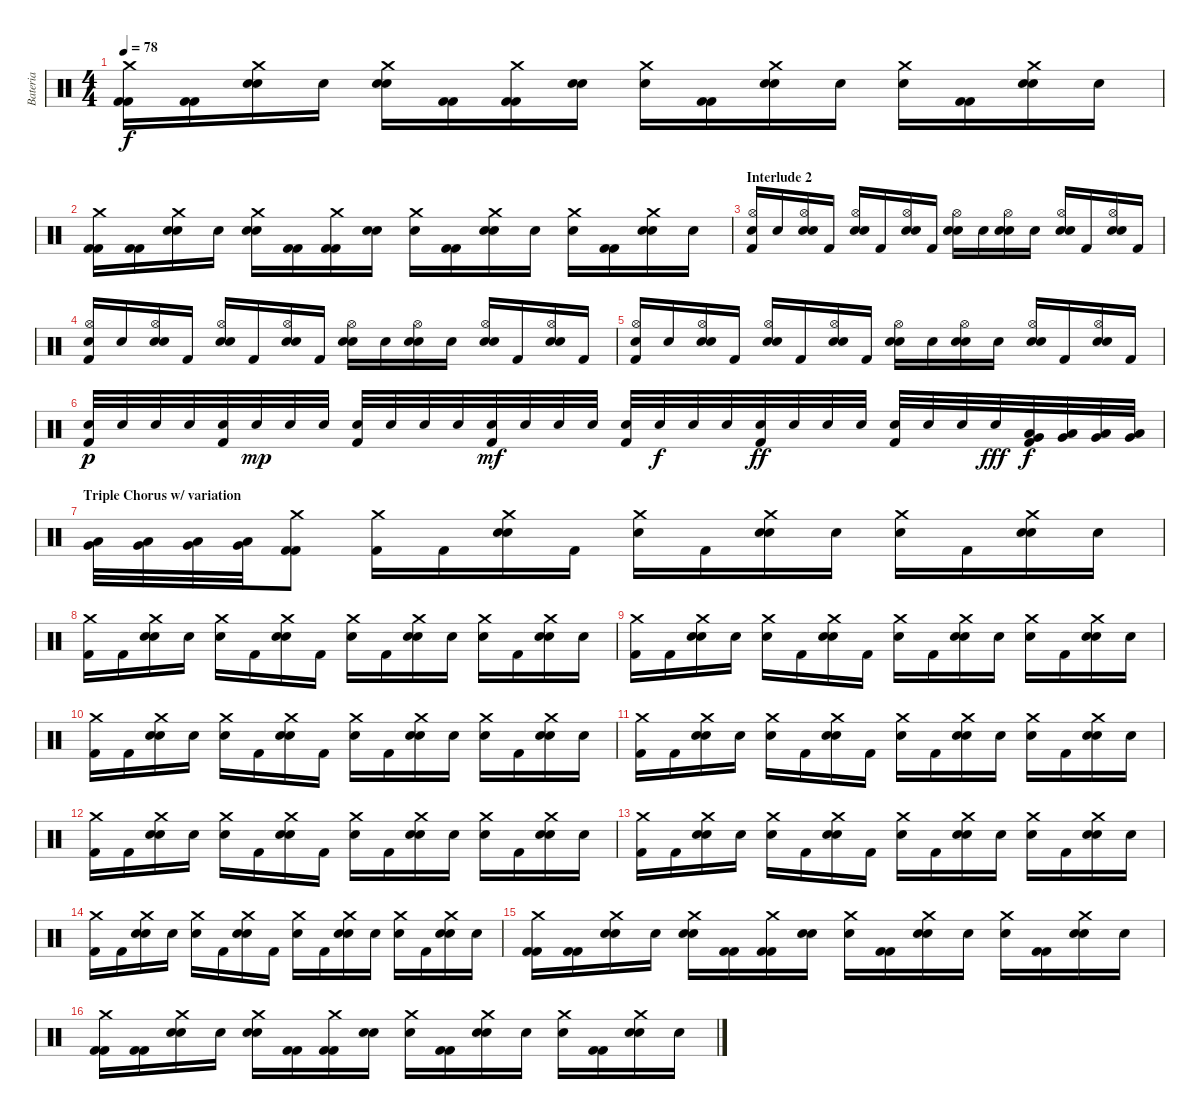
\track ("Bateria" "Bateria") {instrument percussion}
\staff {score}
\articulation defaults
\ts (4 4)
\tempo 78
\clef neutral
\ks c
("Crash medium (hit)" "Kick (hit) 2" "Kick (hit) 2").16{dy f} ("Kick (hit) 2" "Kick (hit) 2").16 ("Crash medium (hit)" "Snare (hit) 2" "Snare (hit)"{x}).16 "Snare (hit)"{x}.16 ("Crash medium (hit)" "Snare (hit) 2" "Snare (hit)"{x}).16 ("Kick (hit) 2" "Kick (hit) 2").16 ("Crash medium (hit)" "Kick (hit) 2" "Kick (hit) 2").16 ("Snare (hit) 2" "Snare (hit)"{x}).16 ("Crash medium (hit)" "Snare (hit)"{x}).16 ("Kick (hit) 2" "Kick (hit) 2").16 ("Crash medium (hit)" "Snare (hit) 2" "Snare (hit)"{x}).16 "Snare (hit)"{x}.16 ("Crash medium (hit)" "Snare (hit)"{x}).16 ("Kick (hit) 2" "Kick (hit) 2").16 ("Crash medium (hit)" "Snare (hit) 2" "Snare (hit)"{x}).16 "Snare (hit)"{x}.16 |
("Crash medium (hit)" "Kick (hit) 2" "Kick (hit) 2").16 ("Kick (hit) 2" "Kick (hit) 2").16 ("Crash medium (hit)" "Snare (hit) 2" "Snare (hit)"{x}).16 "Snare (hit)"{x}.16 ("Crash medium (hit)" "Snare (hit) 2" "Snare (hit)"{x}).16 ("Kick (hit) 2" "Kick (hit) 2").16 ("Crash medium (hit)" "Kick (hit) 2" "Kick (hit) 2").16 ("Snare (hit) 2" "Snare (hit)"{x}).16 ("Crash medium (hit)" "Snare (hit)"{x}).16 ("Kick (hit) 2" "Kick (hit) 2").16 ("Crash medium (hit)" "Snare (hit) 2" "Snare (hit)"{x}).16 "Snare (hit)"{x}.16 ("Crash medium (hit)" "Snare (hit)"{x}).16 ("Kick (hit) 2" "Kick (hit) 2").16 ("Crash medium (hit)" "Snare (hit) 2" "Snare (hit)"{x}).16 "Snare (hit)"{x}.16 |
\section ("" "Interlude 2")
("Hi-Hat (open)" "Electric Snare (hit)" "Kick (hit) 2").16 "Snare (hit)"{x}.16 ("Hi-Hat (open)" "Electric Snare (hit)" "Snare (hit)"{x}).16 "Kick (hit) 2"{x}.16 ("Hi-Hat (open)" "Electric Snare (hit)" "Snare (hit)"{x}).16 "Kick (hit) 2".16 ("Hi-Hat (open)" "Electric Snare (hit)" "Snare (hit)"{x}).16 "Kick (hit) 2".16 ("Hi-Hat (open)" "Electric Snare (hit)" "Snare (hit)"{x}).16 "Snare (hit)"{x}.16 ("Hi-Hat (open)" "Electric Snare (hit)" "Snare (hit)"{x}).16 "Snare (hit)"{x}.16 ("Hi-Hat (open)" "Electric Snare (hit)" "Snare (hit)"{x}).16 "Kick (hit) 2".16 ("Hi-Hat (open)" "Electric Snare (hit)" "Snare (hit)"{x}).16 "Kick (hit) 2".16 |
("Hi-Hat (open)" "Electric Snare (hit)" "Kick (hit) 2").16 "Snare (hit)"{x}.16 ("Hi-Hat (open)" "Electric Snare (hit)" "Snare (hit)"{x}).16 "Kick (hit) 2"{x}.16 ("Hi-Hat (open)" "Electric Snare (hit)" "Snare (hit)"{x}).16 "Kick (hit) 2".16 ("Hi-Hat (open)" "Electric Snare (hit)" "Snare (hit)"{x}).16 "Kick (hit) 2".16 ("Hi-Hat (open)" "Electric Snare (hit)" "Snare (hit)"{x}).16 "Snare (hit)"{x}.16 ("Hi-Hat (open)" "Electric Snare (hit)" "Snare (hit)"{x}).16 "Snare (hit)"{x}.16 ("Hi-Hat (open)" "Electric Snare (hit)" "Snare (hit)"{x}).16 "Kick (hit) 2".16 ("Hi-Hat (open)" "Electric Snare (hit)" "Snare (hit)"{x}).16 "Kick (hit) 2".16 |
("Hi-Hat (open)" "Electric Snare (hit)" "Kick (hit) 2").16 "Snare (hit)"{x}.16 ("Hi-Hat (open)" "Electric Snare (hit)" "Snare (hit)"{x}).16 "Kick (hit) 2"{x}.16 ("Hi-Hat (open)" "Electric Snare (hit)" "Snare (hit)"{x}).16 "Kick (hit) 2".16 ("Hi-Hat (open)" "Electric Snare (hit)" "Snare (hit)"{x}).16 "Kick (hit) 2".16 ("Hi-Hat (open)" "Electric Snare (hit)" "Snare (hit)"{x}).16 "Snare (hit)"{x}.16 ("Hi-Hat (open)" "Electric Snare (hit)" "Snare (hit)"{x}).16 "Snare (hit)"{x}.16 ("Hi-Hat (open)" "Electric Snare (hit)" "Snare (hit)"{x}).16 "Kick (hit) 2".16 ("Hi-Hat (open)" "Electric Snare (hit)" "Snare (hit)"{x}).16 "Kick (hit) 2".16 |
("Snare (hit) 2" "Kick (hit) 2").32{dy p} "Snare (hit) 2".32 "Snare (hit) 2".32 "Snare (hit) 2".32 ("Snare (hit) 2" "Kick (hit) 2").32 "Snare (hit) 2".32{dy mp} "Snare (hit) 2".32 "Snare (hit) 2".32 ("Snare (hit) 2" "Kick (hit) 2").32 "Snare (hit) 2".32 "Snare (hit) 2".32 "Snare (hit) 2".32 ("Snare (hit) 2" "Kick (hit) 2").32{dy mf} "Snare (hit) 2".32 "Snare (hit) 2".32 "Snare (hit) 2".32 ("Snare (hit) 2" "Kick (hit) 2").32 "Snare (hit) 2".32{dy f} "Snare (hit) 2".32 "Snare (hit) 2".32 ("Snare (hit) 2" "Kick (hit) 2").32{dy ff} "Snare (hit) 2".32 "Snare (hit) 2".32 "Snare (hit) 2".32 ("Snare (hit) 2" "Kick (hit) 2").32 "Snare (hit) 2".32 "Snare (hit) 2".32 "Snare (hit) 2".32{dy fff} ("Low Tom (hit)" "Very Low Tom (hit)" "Kick (hit) 2").32{dy f} ("Low Tom (hit)" "Very Low Tom (hit)").32 ("Low Tom (hit)" "Very Low Tom (hit)").32 ("Low Tom (hit)" "Very Low Tom (hit)").32 |
\section ("" "Triple Chorus w/ variation")
("Low Tom (hit)" "Very Low Tom (hit)").32 ("Low Tom (hit)" "Very Low Tom (hit)").32 ("Low Tom (hit)" "Very Low Tom (hit)").32 ("Low Tom (hit)" "Very Low Tom (hit)").32 ("Crash medium (hit)" "Kick (hit) 2" "Kick (hit) 2").8 ("Crash medium (hit)" "Kick (hit) 2").16 "Kick (hit) 2".16 ("Crash medium (hit)" "Snare (hit) 2" "Snare (hit)"{x}).16 "Kick (hit) 2".16 ("Crash medium (hit)" "Snare (hit)"{x}).16 "Kick (hit) 2".16 ("Crash medium (hit)" "Snare (hit) 2" "Snare (hit)"{x}).16 "Snare (hit)"{x}.16 ("Crash medium (hit)" "Snare (hit)"{x}).16 "Kick (hit) 2".16 ("Crash medium (hit)" "Snare (hit) 2" "Snare (hit)"{x}).16 "Snare (hit)"{x}.16 |
("Crash medium (hit)" "Kick (hit) 2").16 "Kick (hit) 2".16 ("Crash medium (hit)" "Snare (hit) 2" "Snare (hit)"{x}).16 "Snare (hit)"{x}.16 ("Crash medium (hit)" "Snare (hit)"{x}).16 "Kick (hit) 2".16 ("Crash medium (hit)" "Snare (hit) 2" "Snare (hit)"{x}).16 "Kick (hit) 2".16 ("Crash medium (hit)" "Snare (hit)"{x}).16 "Kick (hit) 2".16 ("Crash medium (hit)" "Snare (hit) 2" "Snare (hit)"{x}).16 "Snare (hit)"{x}.16 ("Crash medium (hit)" "Snare (hit)"{x}).16 "Kick (hit) 2".16 ("Crash medium (hit)" "Snare (hit) 2" "Snare (hit)"{x}).16 "Snare (hit)"{x}.16 |
("Crash medium (hit)" "Kick (hit) 2").16 "Kick (hit) 2".16 ("Crash medium (hit)" "Snare (hit) 2" "Snare (hit)"{x}).16 "Snare (hit)"{x}.16 ("Crash medium (hit)" "Snare (hit)"{x}).16 "Kick (hit) 2".16 ("Crash medium (hit)" "Snare (hit) 2" "Snare (hit)"{x}).16 "Kick (hit) 2".16 ("Crash medium (hit)" "Snare (hit)"{x}).16 "Kick (hit) 2".16 ("Crash medium (hit)" "Snare (hit) 2" "Snare (hit)"{x}).16 "Snare (hit)"{x}.16 ("Crash medium (hit)" "Snare (hit)"{x}).16 "Kick (hit) 2".16 ("Crash medium (hit)" "Snare (hit) 2" "Snare (hit)"{x}).16 "Snare (hit)"{x}.16 |
("Crash medium (hit)" "Kick (hit) 2").16 "Kick (hit) 2".16 ("Crash medium (hit)" "Snare (hit) 2" "Snare (hit)"{x}).16 "Snare (hit)"{x}.16 ("Crash medium (hit)" "Snare (hit)"{x}).16 "Kick (hit) 2".16 ("Crash medium (hit)" "Snare (hit) 2" "Snare (hit)"{x}).16 "Kick (hit) 2".16 ("Crash medium (hit)" "Snare (hit)"{x}).16 "Kick (hit) 2".16 ("Crash medium (hit)" "Snare (hit) 2" "Snare (hit)"{x}).16 "Snare (hit)"{x}.16 ("Crash medium (hit)" "Snare (hit)"{x}).16 "Kick (hit) 2".16 ("Crash medium (hit)" "Snare (hit) 2" "Snare (hit)"{x}).16 "Snare (hit)"{x}.16 |
("Crash medium (hit)" "Kick (hit) 2").16 "Kick (hit) 2".16 ("Crash medium (hit)" "Snare (hit) 2" "Snare (hit)"{x}).16 "Snare (hit)"{x}.16 ("Crash medium (hit)" "Snare (hit)"{x}).16 "Kick (hit) 2".16 ("Crash medium (hit)" "Snare (hit) 2" "Snare (hit)"{x}).16 "Kick (hit) 2".16 ("Crash medium (hit)" "Snare (hit)"{x}).16 "Kick (hit) 2".16 ("Crash medium (hit)" "Snare (hit) 2" "Snare (hit)"{x}).16 "Snare (hit)"{x}.16 ("Crash medium (hit)" "Snare (hit)"{x}).16 "Kick (hit) 2".16 ("Crash medium (hit)" "Snare (hit) 2" "Snare (hit)"{x}).16 "Snare (hit)"{x}.16 |
("Crash medium (hit)" "Kick (hit) 2").16 "Kick (hit) 2".16 ("Crash medium (hit)" "Snare (hit) 2" "Snare (hit)"{x}).16 "Snare (hit)"{x}.16 ("Crash medium (hit)" "Snare (hit)"{x}).16 "Kick (hit) 2".16 ("Crash medium (hit)" "Snare (hit) 2" "Snare (hit)"{x}).16 "Kick (hit) 2".16 ("Crash medium (hit)" "Snare (hit)"{x}).16 "Kick (hit) 2".16 ("Crash medium (hit)" "Snare (hit) 2" "Snare (hit)"{x}).16 "Snare (hit)"{x}.16 ("Crash medium (hit)" "Snare (hit)"{x}).16 "Kick (hit) 2".16 ("Crash medium (hit)" "Snare (hit) 2" "Snare (hit)"{x}).16 "Snare (hit)"{x}.16 |
("Crash medium (hit)" "Kick (hit) 2").16 "Kick (hit) 2".16 ("Crash medium (hit)" "Snare (hit) 2" "Snare (hit)"{x}).16 "Snare (hit)"{x}.16 ("Crash medium (hit)" "Snare (hit)"{x}).16 "Kick (hit) 2".16 ("Crash medium (hit)" "Snare (hit) 2" "Snare (hit)"{x}).16 "Kick (hit) 2".16 ("Crash medium (hit)" "Snare (hit)"{x}).16 "Kick (hit) 2".16 ("Crash medium (hit)" "Snare (hit) 2" "Snare (hit)"{x}).16 "Snare (hit)"{x}.16 ("Crash medium (hit)" "Snare (hit)"{x}).16 "Kick (hit) 2".16 ("Crash medium (hit)" "Snare (hit) 2" "Snare (hit)"{x}).16 "Snare (hit)"{x}.16 |
("Crash medium (hit)" "Kick (hit) 2").16 "Kick (hit) 2".16 ("Crash medium (hit)" "Snare (hit) 2" "Snare (hit)"{x}).16 "Snare (hit)"{x}.16 ("Crash medium (hit)" "Snare (hit)"{x}).16 "Kick (hit) 2".16 ("Crash medium (hit)" "Snare (hit) 2" "Snare (hit)"{x}).16 "Kick (hit) 2".16 ("Crash medium (hit)" "Snare (hit)"{x}).16 "Kick (hit) 2".16 ("Crash medium (hit)" "Snare (hit) 2" "Snare (hit)"{x}).16 "Snare (hit)"{x}.16 ("Crash medium (hit)" "Snare (hit)"{x}).16 "Kick (hit) 2".16 ("Crash medium (hit)" "Snare (hit) 2" "Snare (hit)"{x}).16 "Snare (hit)"{x}.16 |
("Crash medium (hit)" "Kick (hit) 2" "Kick (hit) 2").16 ("Kick (hit) 2" "Kick (hit) 2").16 ("Crash medium (hit)" "Snare (hit) 2" "Snare (hit)"{x}).16 "Snare (hit)"{x}.16 ("Crash medium (hit)" "Snare (hit) 2" "Snare (hit)"{x}).16 ("Kick (hit) 2" "Kick (hit) 2").16 ("Crash medium (hit)" "Kick (hit) 2" "Kick (hit) 2").16 ("Snare (hit) 2" "Snare (hit)"{x}).16 ("Crash medium (hit)" "Snare (hit)"{x}).16 ("Kick (hit) 2" "Kick (hit) 2").16 ("Crash medium (hit)" "Snare (hit) 2" "Snare (hit)"{x}).16 "Snare (hit)"{x}.16 ("Crash medium (hit)" "Snare (hit)"{x}).16 ("Kick (hit) 2" "Kick (hit) 2").16 ("Crash medium (hit)" "Snare (hit) 2" "Snare (hit)"{x}).16 "Snare (hit)"{x}.16 |
("Crash medium (hit)" "Kick (hit) 2" "Kick (hit) 2").16 ("Kick (hit) 2" "Kick (hit) 2").16 ("Crash medium (hit)" "Snare (hit) 2" "Snare (hit)"{x}).16 "Snare (hit)"{x}.16 ("Crash medium (hit)" "Snare (hit) 2" "Snare (hit)"{x}).16 ("Kick (hit) 2" "Kick (hit) 2").16 ("Crash medium (hit)" "Kick (hit) 2" "Kick (hit) 2").16 ("Snare (hit) 2" "Snare (hit)"{x}).16 ("Crash medium (hit)" "Snare (hit)"{x}).16 ("Kick (hit) 2" "Kick (hit) 2").16 ("Crash medium (hit)" "Snare (hit) 2" "Snare (hit)"{x}).16 "Snare (hit)"{x}.16 ("Crash medium (hit)" "Snare (hit)"{x}).16 ("Kick (hit) 2" "Kick (hit) 2").16 ("Crash medium (hit)" "Snare (hit) 2" "Snare (hit)"{x}).16 "Snare (hit)"{x}.16
